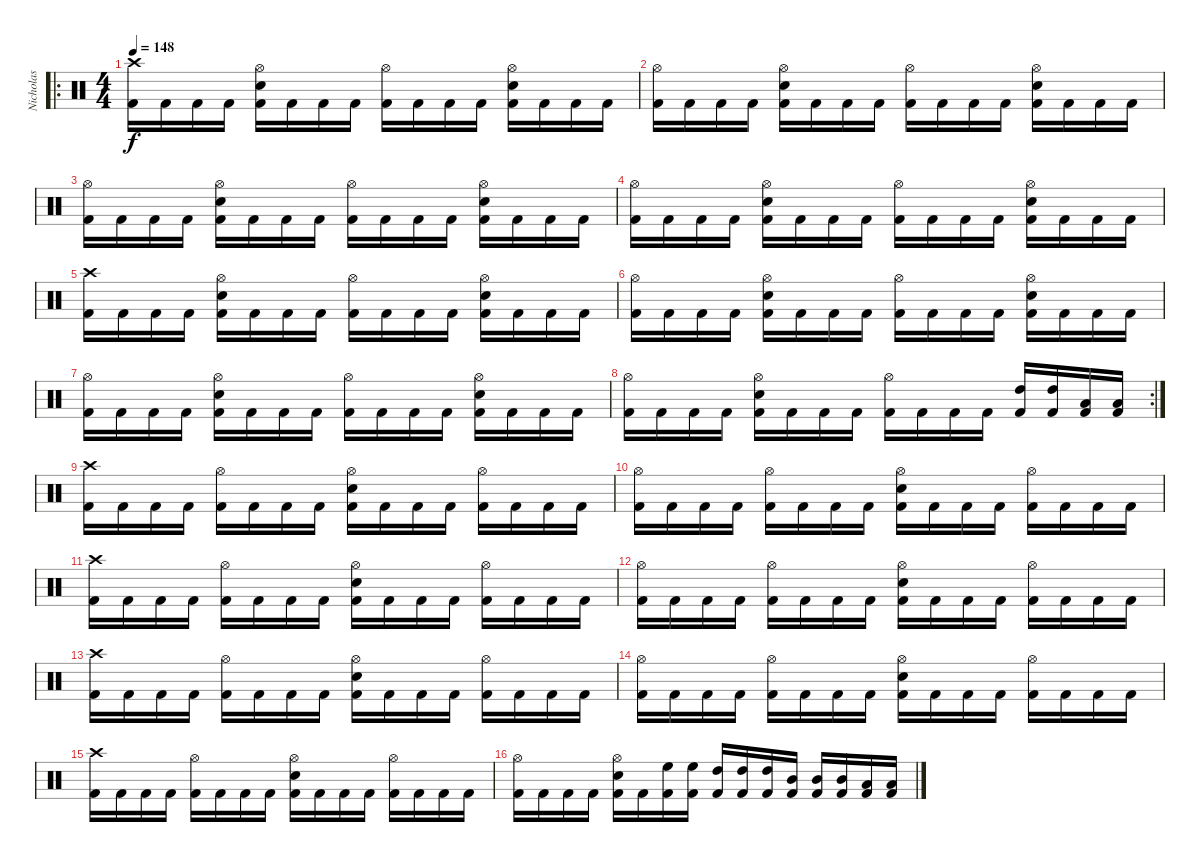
\track ("Nicholas" "Nicholas") {instrument percussion}
\staff {score}
\articulation defaults
\ro
\ts (4 4)
\tempo 148
\clef neutral
\ks c
("Kick (hit) 2" "Crash high (hit)").16{dy f} "Kick (hit) 2".16 "Kick (hit) 2".16 "Kick (hit) 2".16 ("Kick (hit) 2" "Snare (hit) 2" "Hi-Hat (open)").16 "Kick (hit) 2".16 "Kick (hit) 2".16 "Kick (hit) 2".16 ("Kick (hit) 2" "Hi-Hat (open)").16 "Kick (hit) 2".16 "Kick (hit) 2".16 "Kick (hit) 2".16 ("Kick (hit) 2" "Snare (hit) 2" "Hi-Hat (open)").16 "Kick (hit) 2".16 "Kick (hit) 2".16 "Kick (hit) 2".16 |
("Kick (hit) 2" "Hi-Hat (open)").16 "Kick (hit) 2".16 "Kick (hit) 2".16 "Kick (hit) 2".16 ("Kick (hit) 2" "Snare (hit) 2" "Hi-Hat (open)").16 "Kick (hit) 2".16 "Kick (hit) 2".16 "Kick (hit) 2".16 ("Kick (hit) 2" "Hi-Hat (open)").16 "Kick (hit) 2".16 "Kick (hit) 2".16 "Kick (hit) 2".16 ("Kick (hit) 2" "Snare (hit) 2" "Hi-Hat (open)").16 "Kick (hit) 2".16 "Kick (hit) 2".16 "Kick (hit) 2".16 |
("Kick (hit) 2" "Hi-Hat (open)").16 "Kick (hit) 2".16 "Kick (hit) 2".16 "Kick (hit) 2".16 ("Kick (hit) 2" "Snare (hit) 2" "Hi-Hat (open)").16 "Kick (hit) 2".16 "Kick (hit) 2".16 "Kick (hit) 2".16 ("Kick (hit) 2" "Hi-Hat (open)").16 "Kick (hit) 2".16 "Kick (hit) 2".16 "Kick (hit) 2".16 ("Kick (hit) 2" "Snare (hit) 2" "Hi-Hat (open)").16 "Kick (hit) 2".16 "Kick (hit) 2".16 "Kick (hit) 2".16 |
("Kick (hit) 2" "Hi-Hat (open)").16 "Kick (hit) 2".16 "Kick (hit) 2".16 "Kick (hit) 2".16 ("Kick (hit) 2" "Snare (hit) 2" "Hi-Hat (open)").16 "Kick (hit) 2".16 "Kick (hit) 2".16 "Kick (hit) 2".16 ("Kick (hit) 2" "Hi-Hat (open)").16 "Kick (hit) 2".16 "Kick (hit) 2".16 "Kick (hit) 2".16 ("Kick (hit) 2" "Snare (hit) 2" "Hi-Hat (open)").16 "Kick (hit) 2".16 "Kick (hit) 2".16 "Kick (hit) 2".16 |
("Kick (hit) 2" "Crash high (hit)").16 "Kick (hit) 2".16 "Kick (hit) 2".16 "Kick (hit) 2".16 ("Kick (hit) 2" "Snare (hit) 2" "Hi-Hat (open)").16 "Kick (hit) 2".16 "Kick (hit) 2".16 "Kick (hit) 2".16 ("Kick (hit) 2" "Hi-Hat (open)").16 "Kick (hit) 2".16 "Kick (hit) 2".16 "Kick (hit) 2".16 ("Kick (hit) 2" "Snare (hit) 2" "Hi-Hat (open)").16 "Kick (hit) 2".16 "Kick (hit) 2".16 "Kick (hit) 2".16 |
("Kick (hit) 2" "Hi-Hat (open)").16 "Kick (hit) 2".16 "Kick (hit) 2".16 "Kick (hit) 2".16 ("Kick (hit) 2" "Snare (hit) 2" "Hi-Hat (open)").16 "Kick (hit) 2".16 "Kick (hit) 2".16 "Kick (hit) 2".16 ("Kick (hit) 2" "Hi-Hat (open)").16 "Kick (hit) 2".16 "Kick (hit) 2".16 "Kick (hit) 2".16 ("Kick (hit) 2" "Snare (hit) 2" "Hi-Hat (open)").16 "Kick (hit) 2".16 "Kick (hit) 2".16 "Kick (hit) 2".16 |
("Kick (hit) 2" "Hi-Hat (open)").16 "Kick (hit) 2".16 "Kick (hit) 2".16 "Kick (hit) 2".16 ("Kick (hit) 2" "Snare (hit) 2" "Hi-Hat (open)").16 "Kick (hit) 2".16 "Kick (hit) 2".16 "Kick (hit) 2".16 ("Kick (hit) 2" "Hi-Hat (open)").16 "Kick (hit) 2".16 "Kick (hit) 2".16 "Kick (hit) 2".16 ("Kick (hit) 2" "Snare (hit) 2" "Hi-Hat (open)").16 "Kick (hit) 2".16 "Kick (hit) 2".16 "Kick (hit) 2".16 |
\rc 2
("Kick (hit) 2" "Hi-Hat (open)").16 "Kick (hit) 2".16 "Kick (hit) 2".16 "Kick (hit) 2".16 ("Kick (hit) 2" "Snare (hit) 2" "Hi-Hat (open)").16 "Kick (hit) 2".16 "Kick (hit) 2".16 "Kick (hit) 2".16 ("Kick (hit) 2" "Hi-Hat (open)").16 "Kick (hit) 2".16 "Kick (hit) 2".16 "Kick (hit) 2".16 ("Kick (hit) 2" "High Tom (hit)").16 ("Kick (hit) 2" "High Tom (hit)").16 ("Kick (hit) 2" "Low Tom (hit)").16 ("Kick (hit) 2" "Low Tom (hit)").16 |
("Kick (hit) 2" "Crash high (hit)").16 "Kick (hit) 2".16 "Kick (hit) 2".16 "Kick (hit) 2".16 ("Kick (hit) 2" "Hi-Hat (open)").16 "Kick (hit) 2".16 "Kick (hit) 2".16 "Kick (hit) 2".16 ("Kick (hit) 2" "Snare (hit) 2" "Hi-Hat (open)").16 "Kick (hit) 2".16 "Kick (hit) 2".16 "Kick (hit) 2".16 ("Kick (hit) 2" "Hi-Hat (open)").16 "Kick (hit) 2".16 "Kick (hit) 2".16 "Kick (hit) 2".16 |
("Kick (hit) 2" "Hi-Hat (open)").16 "Kick (hit) 2".16 "Kick (hit) 2".16 "Kick (hit) 2".16 ("Kick (hit) 2" "Hi-Hat (open)").16 "Kick (hit) 2".16 "Kick (hit) 2".16 "Kick (hit) 2".16 ("Kick (hit) 2" "Snare (hit) 2" "Hi-Hat (open)").16 "Kick (hit) 2".16 "Kick (hit) 2".16 "Kick (hit) 2".16 ("Kick (hit) 2" "Hi-Hat (open)").16 "Kick (hit) 2".16 "Kick (hit) 2".16 "Kick (hit) 2".16 |
("Kick (hit) 2" "Crash high (hit)").16 "Kick (hit) 2".16 "Kick (hit) 2".16 "Kick (hit) 2".16 ("Kick (hit) 2" "Hi-Hat (open)").16 "Kick (hit) 2".16 "Kick (hit) 2".16 "Kick (hit) 2".16 ("Kick (hit) 2" "Snare (hit) 2" "Hi-Hat (open)").16 "Kick (hit) 2".16 "Kick (hit) 2".16 "Kick (hit) 2".16 ("Kick (hit) 2" "Hi-Hat (open)").16 "Kick (hit) 2".16 "Kick (hit) 2".16 "Kick (hit) 2".16 |
("Kick (hit) 2" "Hi-Hat (open)").16 "Kick (hit) 2".16 "Kick (hit) 2".16 "Kick (hit) 2".16 ("Kick (hit) 2" "Hi-Hat (open)").16 "Kick (hit) 2".16 "Kick (hit) 2".16 "Kick (hit) 2".16 ("Kick (hit) 2" "Snare (hit) 2" "Hi-Hat (open)").16 "Kick (hit) 2".16 "Kick (hit) 2".16 "Kick (hit) 2".16 ("Kick (hit) 2" "Hi-Hat (open)").16 "Kick (hit) 2".16 "Kick (hit) 2".16 "Kick (hit) 2".16 |
("Kick (hit) 2" "Crash high (hit)").16 "Kick (hit) 2".16 "Kick (hit) 2".16 "Kick (hit) 2".16 ("Kick (hit) 2" "Hi-Hat (open)").16 "Kick (hit) 2".16 "Kick (hit) 2".16 "Kick (hit) 2".16 ("Kick (hit) 2" "Snare (hit) 2" "Hi-Hat (open)").16 "Kick (hit) 2".16 "Kick (hit) 2".16 "Kick (hit) 2".16 ("Kick (hit) 2" "Hi-Hat (open)").16 "Kick (hit) 2".16 "Kick (hit) 2".16 "Kick (hit) 2".16 |
("Kick (hit) 2" "Hi-Hat (open)").16 "Kick (hit) 2".16 "Kick (hit) 2".16 "Kick (hit) 2".16 ("Kick (hit) 2" "Hi-Hat (open)").16 "Kick (hit) 2".16 "Kick (hit) 2".16 "Kick (hit) 2".16 ("Kick (hit) 2" "Snare (hit) 2" "Hi-Hat (open)").16 "Kick (hit) 2".16 "Kick (hit) 2".16 "Kick (hit) 2".16 ("Kick (hit) 2" "Hi-Hat (open)").16 "Kick (hit) 2".16 "Kick (hit) 2".16 "Kick (hit) 2".16 |
("Kick (hit) 2" "Crash high (hit)").16 "Kick (hit) 2".16 "Kick (hit) 2".16 "Kick (hit) 2".16 ("Kick (hit) 2" "Hi-Hat (open)").16 "Kick (hit) 2".16 "Kick (hit) 2".16 "Kick (hit) 2".16 ("Kick (hit) 2" "Snare (hit) 2" "Hi-Hat (open)").16 "Kick (hit) 2".16 "Kick (hit) 2".16 "Kick (hit) 2".16 ("Kick (hit) 2" "Hi-Hat (open)").16 "Kick (hit) 2".16 "Kick (hit) 2".16 "Kick (hit) 2".16 |
("Kick (hit) 2" "Hi-Hat (open)").16 "Kick (hit) 2".16 "Kick (hit) 2".16 "Kick (hit) 2".16 ("Kick (hit) 2" "Snare (hit) 2" "Hi-Hat (open)").16 "Kick (hit) 2".16 ("Kick (hit) 2" "High Floor Tom (hit)").16 ("Kick (hit) 2" "High Floor Tom (hit)").16 ("Kick (hit) 2" "High Tom (hit)").16 ("Kick (hit) 2" "High Tom (hit)").16 ("Kick (hit) 2" "High Tom (hit)").16 ("Kick (hit) 2" "Mid Tom (hit)").16 ("Kick (hit) 2" "Mid Tom (hit)").16 ("Kick (hit) 2" "Mid Tom (hit)").16 ("Kick (hit) 2" "Low Tom (hit)").16 ("Kick (hit) 2" "Low Tom (hit)").16
